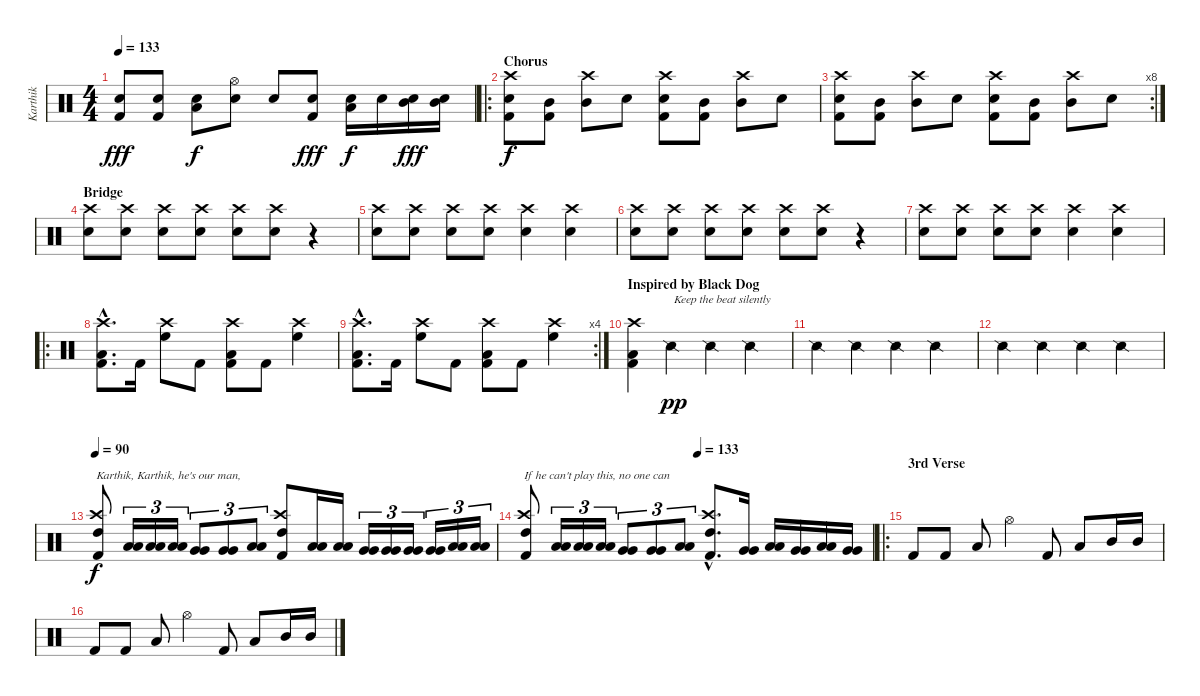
\track ("Karthik" "Karthik") {instrument percussion}
\staff {score}
\articulation defaults
\ts (4 4)
\tempo 133
\clef neutral
\ks c
("Kick (hit) 2" "Snare (hit) 2").8{dy fff} ("Kick (hit) 2" "Electric Snare (hit)").8 ("Low Tom (hit)" "Snare (hit) 2").8{dy f} ("Hi-Hat (open)" "Electric Snare (hit)").8 "Snare (hit) 2".8 ("Kick (hit) 2" "Electric Snare (hit)").8{dy fff} ("Low Tom (hit)" "Snare (hit) 2").16{dy f} "Snare (hit) 2".16 ("Mid Tom (hit)" "Snare (hit) 2").16{dy fff} ("Mid Tom (hit)" "Snare (hit) 2").16 |
\ro
\section ("" "Chorus")
("Crash high (hit)" "Snare (hit) 2" "Kick (hit) 2").8{dy f} ("Mid Tom (hit)" "Kick (hit) 2").8 ("Crash high (hit)" "Mid Tom (hit)").8 "Electric Snare (hit)".8 ("Crash high (hit)" "Snare (hit) 2" "Kick (hit) 2").8 ("Mid Tom (hit)" "Kick (hit) 2").8 ("Crash high (hit)" "Mid Tom (hit)").8 "Snare (hit) 2".8 |
\rc 8
("Crash high (hit)" "Snare (hit) 2" "Kick (hit) 2").8 ("Mid Tom (hit)" "Kick (hit) 2").8 ("Crash high (hit)" "Mid Tom (hit)").8 "Electric Snare (hit)".8 ("Crash high (hit)" "Snare (hit) 2" "Kick (hit) 2").8 ("Mid Tom (hit)" "Kick (hit) 2").8 ("Crash high (hit)" "Mid Tom (hit)").8 "Snare (hit) 2".8 |
\section ("" "Bridge")
("Crash high (hit)" "Snare (hit) 2").8 ("Crash high (hit)" "Snare (hit) 2").8 ("Crash high (hit)" "Snare (hit) 2").8 ("Crash high (hit)" "Snare (hit) 2").8 ("Crash high (hit)" "Snare (hit) 2").8 ("Crash high (hit)" "Snare (hit) 2").8 r.4 |
("Crash high (hit)" "Snare (hit) 2").8 ("Crash high (hit)" "Snare (hit) 2").8 ("Crash high (hit)" "Snare (hit) 2").8 ("Crash high (hit)" "Snare (hit) 2").8 ("Crash high (hit)" "Snare (hit) 2").4 ("Crash high (hit)" "Snare (hit) 2").4 |
("Crash high (hit)" "Snare (hit) 2").8 ("Crash high (hit)" "Snare (hit) 2").8 ("Crash high (hit)" "Snare (hit) 2").8 ("Crash high (hit)" "Snare (hit) 2").8 ("Crash high (hit)" "Snare (hit) 2").8 ("Crash high (hit)" "Snare (hit) 2").8 r.4 |
("Crash high (hit)" "Snare (hit) 2").8 ("Crash high (hit)" "Snare (hit) 2").8 ("Crash high (hit)" "Snare (hit) 2").8 ("Crash high (hit)" "Snare (hit) 2").8 ("Crash high (hit)" "Snare (hit) 2").4 ("Crash high (hit)" "Snare (hit) 2").4 |
\ro
("Crash high (hit)"{hac} "Low Tom (hit)"{hac} "Kick (hit) 2"{hac}).8{d volume 16} "Kick (hit) 2".16 ("Crash high (hit)" "High Floor Tom (hit)").8 "Kick (hit) 2".8 ("Crash high (hit)" "Low Tom (hit)" "Kick (hit) 2").8 "Kick (hit) 2".8 ("Crash high (hit)" "High Floor Tom (hit)").4 |
\rc 4
("Crash high (hit)"{hac} "Low Tom (hit)"{hac} "Kick (hit) 2"{hac}).8{d} "Kick (hit) 2".16 ("Crash high (hit)" "High Floor Tom (hit)").8 "Kick (hit) 2".8 ("Crash high (hit)" "Low Tom (hit)" "Kick (hit) 2").8 "Kick (hit) 2".8 ("Crash high (hit)" "High Floor Tom (hit)").4 |
\section ("" "Inspired by Black Dog")
("Crash high (hit)" "Low Tom (hit)" "Kick (hit) 2").4 "Snare (side stick) 2".4{txt "Keep the beat silently" dy pp} "Snare (side stick) 2".4 "Snare (side stick) 2".4 |
"Snare (side stick) 2".4 "Snare (side stick) 2".4 "Snare (side stick) 2".4 "Snare (side stick) 2".4 |
"Snare (side stick) 2".4 "Snare (side stick) 2".4 "Snare (side stick) 2".4 "Snare (side stick) 2".4 |
\tempo 90
("Crash high (hit)" "Kick (hit) 2" "High Tom (hit)").8{txt "Karthik, Karthik, he's our man," dy f volume 16} ("Low Tom (hit)" "Low Tom (hit)").16{tu (3 2)} ("Low Tom (hit)" "Low Tom (hit)").16{tu (3 2)} ("Low Tom (hit)" "Low Tom (hit)").16{tu (3 2)} ("Very Low Tom (hit)" "Very Low Tom (hit)").8{tu (3 2)} ("Very Low Tom (hit)" "Very Low Tom (hit)").8{tu (3 2)} ("Low Floor Tom (hit)" "Low Floor Tom (hit)").8{tu (3 2)} ("Crash high (hit)" "Kick (hit) 2" "High Tom (hit)").8 ("Low Tom (hit)" "Low Tom (hit)").16 ("Low Tom (hit)" "Low Tom (hit)").16 ("Very Low Tom (hit)" "Very Low Tom (hit)").16{tu (3 2)} ("Very Low Tom (hit)" "Very Low Tom (hit)").16{tu (3 2)} ("Very Low Tom (hit)" "Very Low Tom (hit)").16{tu (3 2)} ("Very Low Tom (hit)" "Very Low Tom (hit)").16{tu (3 2)} ("Low Floor Tom (hit)" "Low Floor Tom (hit)").16{tu (3 2)} ("Low Floor Tom (hit)" "Low Floor Tom (hit)").16{tu (3 2)} |
\tempo (133 0.5)
("Crash high (hit)" "Kick (hit) 2" "High Tom (hit)").8{txt "If he can't play this, no one can"} ("Low Tom (hit)" "Low Tom (hit)").16{tu (3 2)} ("Low Tom (hit)" "Low Tom (hit)").16{tu (3 2)} ("Low Tom (hit)" "Low Tom (hit)").16{tu (3 2)} ("Very Low Tom (hit)" "Very Low Tom (hit)").8{tu (3 2)} ("Very Low Tom (hit)" "Very Low Tom (hit)").8{tu (3 2)} ("Low Floor Tom (hit)" "Low Floor Tom (hit)").8{tu (3 2)} ("Crash high (hit)"{hac} "Kick (hit) 2"{hac} "High Tom (hit)"{hac}).8{d} ("Very Low Tom (hit)" "Very Low Tom (hit)").16 ("Low Tom (hit)" "Low Tom (hit)").16 ("Very Low Tom (hit)" "Very Low Tom (hit)").16 ("Low Tom (hit)" "Low Tom (hit)").16 ("Very Low Tom (hit)" "Very Low Tom (hit)").16 |
\ro
\section ("" "3rd Verse")
"Kick (hit) 2".8{volume 13} "Kick (hit) 2".8 "Low Tom (hit)".8 "Hi-Hat (open)".4 "Kick (hit) 2".8 "Low Tom (hit)".8 "Mid Tom (hit)".16 "Mid Tom (hit)".16 |
"Kick (hit) 2".8 "Kick (hit) 2".8 "Low Tom (hit)".8 "Hi-Hat (open)".4 "Kick (hit) 2".8 "Low Tom (hit)".8 "Mid Tom (hit)".16 "Mid Tom (hit)".16
